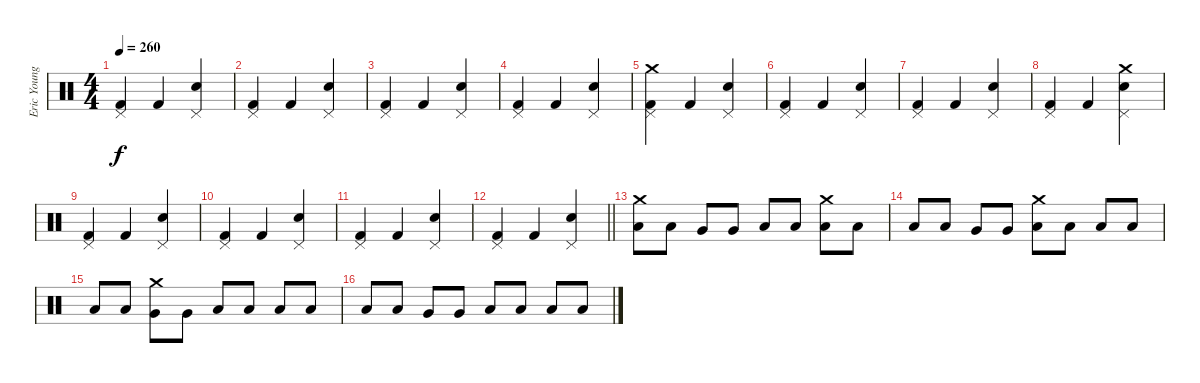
\track ("Eric Young (Drums)" "Eric Young") {instrument percussion}
\staff {score}
\articulation defaults
\ts (4 4)
\tempo 260
\clef neutral
\ks c
("Pedal Hi-Hat (hit)" "Kick (hit) 2").4{dy f} "Kick (hit) 2".4 ("Pedal Hi-Hat (hit)" "Snare (hit) 2").4 |
("Pedal Hi-Hat (hit)" "Kick (hit) 2").4 "Kick (hit) 2".4 ("Pedal Hi-Hat (hit)" "Snare (hit) 2").4 |
("Pedal Hi-Hat (hit)" "Kick (hit) 2").4 "Kick (hit) 2".4 ("Pedal Hi-Hat (hit)" "Snare (hit) 2").4 |
("Pedal Hi-Hat (hit)" "Kick (hit) 2").4 "Kick (hit) 2".4 ("Pedal Hi-Hat (hit)" "Snare (hit) 2").4 |
("Pedal Hi-Hat (hit)" "Kick (hit) 2" "Crash medium (hit)").4 "Kick (hit) 2".4 ("Pedal Hi-Hat (hit)" "Snare (hit) 2").4 |
("Pedal Hi-Hat (hit)" "Kick (hit) 2").4 "Kick (hit) 2".4 ("Pedal Hi-Hat (hit)" "Snare (hit) 2").4 |
("Pedal Hi-Hat (hit)" "Kick (hit) 2").4 "Kick (hit) 2".4 ("Pedal Hi-Hat (hit)" "Snare (hit) 2").4 |
("Pedal Hi-Hat (hit)" "Kick (hit) 2").4 "Kick (hit) 2".4 ("Pedal Hi-Hat (hit)" "Snare (hit) 2" "Crash medium (hit)").4 |
("Pedal Hi-Hat (hit)" "Kick (hit) 2").4 "Kick (hit) 2".4 ("Pedal Hi-Hat (hit)" "Snare (hit) 2").4 |
("Pedal Hi-Hat (hit)" "Kick (hit) 2").4 "Kick (hit) 2".4 ("Pedal Hi-Hat (hit)" "Snare (hit) 2").4 |
("Pedal Hi-Hat (hit)" "Kick (hit) 2").4 "Kick (hit) 2".4 ("Pedal Hi-Hat (hit)" "Snare (hit) 2").4 |
\barLineRight lightlight
("Pedal Hi-Hat (hit)" "Kick (hit) 2").4 "Kick (hit) 2".4 ("Pedal Hi-Hat (hit)" "Snare (hit) 2").4 |
("Crash medium (hit)" "Low Tom (hit)").8 "Low Tom (hit)".8 "Very Low Tom (hit)".8 "Very Low Tom (hit)".8 "Low Floor Tom (hit)".8 "Low Floor Tom (hit)".8 ("Crash medium (hit)" "Low Tom (hit)").8 "Low Tom (hit)".8 |
"Low Tom (hit)".8 "Low Tom (hit)".8 "Very Low Tom (hit)".8 "Very Low Tom (hit)".8 ("Crash medium (hit)" "Low Floor Tom (hit)").8 "Low Floor Tom (hit)".8 "Low Tom (hit)".8 "Low Tom (hit)".8 |
"Low Tom (hit)".8 "Low Tom (hit)".8 ("Crash medium (hit)" "Very Low Tom (hit)").8 "Very Low Tom (hit)".8 "Low Floor Tom (hit)".8 "Low Floor Tom (hit)".8 "Low Tom (hit)".8 "Low Tom (hit)".8 |
"Low Tom (hit)".8 "Low Tom (hit)".8 "Very Low Tom (hit)".8 "Very Low Tom (hit)".8 "Low Floor Tom (hit)".8 "Low Floor Tom (hit)".8 "Low Tom (hit)".8 "Low Tom (hit)".8
